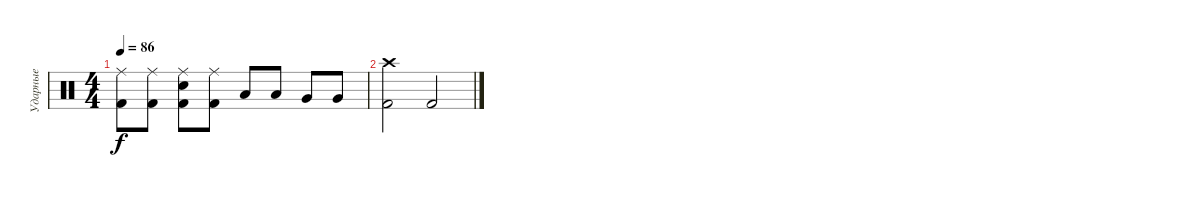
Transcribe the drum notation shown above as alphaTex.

\track ("Ударные" "Ударные") {instrument percussion}
\staff {score}
\articulation defaults
\ts (4 4)
\tempo 86
\clef neutral
\ks c
("Ride (middle)" "Kick (hit) 2").8{dy f} ("Ride (middle)" "Kick (hit) 2").8 ("Ride (middle)" "Electric Snare (hit)" "Kick (hit) 2").8 ("Ride (middle)" "Kick (hit) 2").8 "Low Tom (hit)".8 "Low Tom (hit)".8 "Very Low Tom (hit)".8 "Very Low Tom (hit)".8 |
("Crash high (hit)" "Kick (hit) 2").2 "Kick (hit) 2".2
